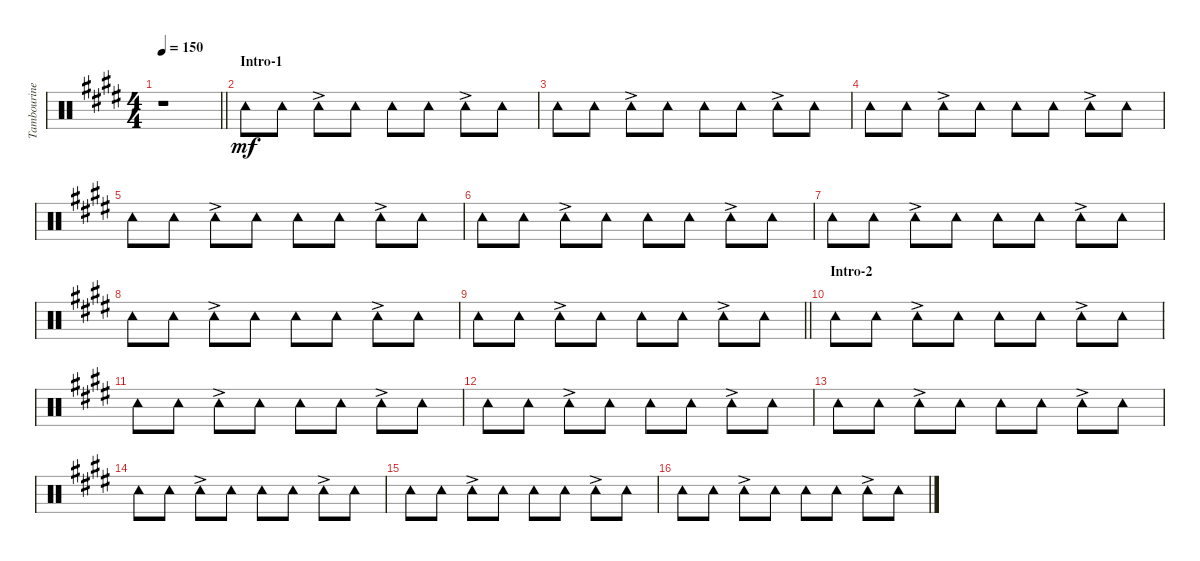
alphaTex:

\track ("Tambourine" "Tambourine") {instrument percussion}
\staff {score}
\articulation defaults
\ts (4 4)
\tempo 150
\clef neutral
\barLineRight lightlight
\ks e
r.1{dy mf} |
\section ("" "Intro-1")
"Tambourine (hit)".8 "Tambourine (hit)".8 "Tambourine (hit)"{ac}.8 "Tambourine (hit)".8 "Tambourine (hit)".8 "Tambourine (hit)".8 "Tambourine (hit)"{ac}.8 "Tambourine (hit)".8 |
"Tambourine (hit)".8 "Tambourine (hit)".8 "Tambourine (hit)"{ac}.8 "Tambourine (hit)".8 "Tambourine (hit)".8 "Tambourine (hit)".8 "Tambourine (hit)"{ac}.8 "Tambourine (hit)".8 |
"Tambourine (hit)".8 "Tambourine (hit)".8 "Tambourine (hit)"{ac}.8 "Tambourine (hit)".8 "Tambourine (hit)".8 "Tambourine (hit)".8 "Tambourine (hit)"{ac}.8 "Tambourine (hit)".8 |
"Tambourine (hit)".8 "Tambourine (hit)".8 "Tambourine (hit)"{ac}.8 "Tambourine (hit)".8 "Tambourine (hit)".8 "Tambourine (hit)".8 "Tambourine (hit)"{ac}.8 "Tambourine (hit)".8 |
"Tambourine (hit)".8 "Tambourine (hit)".8 "Tambourine (hit)"{ac}.8 "Tambourine (hit)".8 "Tambourine (hit)".8 "Tambourine (hit)".8 "Tambourine (hit)"{ac}.8 "Tambourine (hit)".8 |
"Tambourine (hit)".8 "Tambourine (hit)".8 "Tambourine (hit)"{ac}.8 "Tambourine (hit)".8 "Tambourine (hit)".8 "Tambourine (hit)".8 "Tambourine (hit)"{ac}.8 "Tambourine (hit)".8 |
"Tambourine (hit)".8 "Tambourine (hit)".8 "Tambourine (hit)"{ac}.8 "Tambourine (hit)".8 "Tambourine (hit)".8 "Tambourine (hit)".8 "Tambourine (hit)"{ac}.8 "Tambourine (hit)".8 |
\barLineRight lightlight "Tambourine (hit)".8 "Tambourine (hit)".8 "Tambourine (hit)"{ac}.8 "Tambourine (hit)".8 "Tambourine (hit)".8 "Tambourine (hit)".8 "Tambourine (hit)"{ac}.8 "Tambourine (hit)".8
|
\section ("" "Intro-2")
"Tambourine (hit)".8 "Tambourine (hit)".8 "Tambourine (hit)"{ac}.8 "Tambourine (hit)".8 "Tambourine (hit)".8 "Tambourine (hit)".8 "Tambourine (hit)"{ac}.8 "Tambourine (hit)".8 |
"Tambourine (hit)".8 "Tambourine (hit)".8 "Tambourine (hit)"{ac}.8 "Tambourine (hit)".8 "Tambourine (hit)".8 "Tambourine (hit)".8 "Tambourine (hit)"{ac}.8 "Tambourine (hit)".8 |
"Tambourine (hit)".8 "Tambourine (hit)".8 "Tambourine (hit)"{ac}.8 "Tambourine (hit)".8 "Tambourine (hit)".8 "Tambourine (hit)".8 "Tambourine (hit)"{ac}.8 "Tambourine (hit)".8 |
"Tambourine (hit)".8 "Tambourine (hit)".8 "Tambourine (hit)"{ac}.8 "Tambourine (hit)".8 "Tambourine (hit)".8 "Tambourine (hit)".8 "Tambourine (hit)"{ac}.8 "Tambourine (hit)".8 |
"Tambourine (hit)".8 "Tambourine (hit)".8 "Tambourine (hit)"{ac}.8 "Tambourine (hit)".8 "Tambourine (hit)".8 "Tambourine (hit)".8 "Tambourine (hit)"{ac}.8 "Tambourine (hit)".8 |
"Tambourine (hit)".8 "Tambourine (hit)".8 "Tambourine (hit)"{ac}.8 "Tambourine (hit)".8 "Tambourine (hit)".8 "Tambourine (hit)".8 "Tambourine (hit)"{ac}.8 "Tambourine (hit)".8 |
"Tambourine (hit)".8 "Tambourine (hit)".8 "Tambourine (hit)"{ac}.8 "Tambourine (hit)".8 "Tambourine (hit)".8 "Tambourine (hit)".8 "Tambourine (hit)"{ac}.8 "Tambourine (hit)".8
